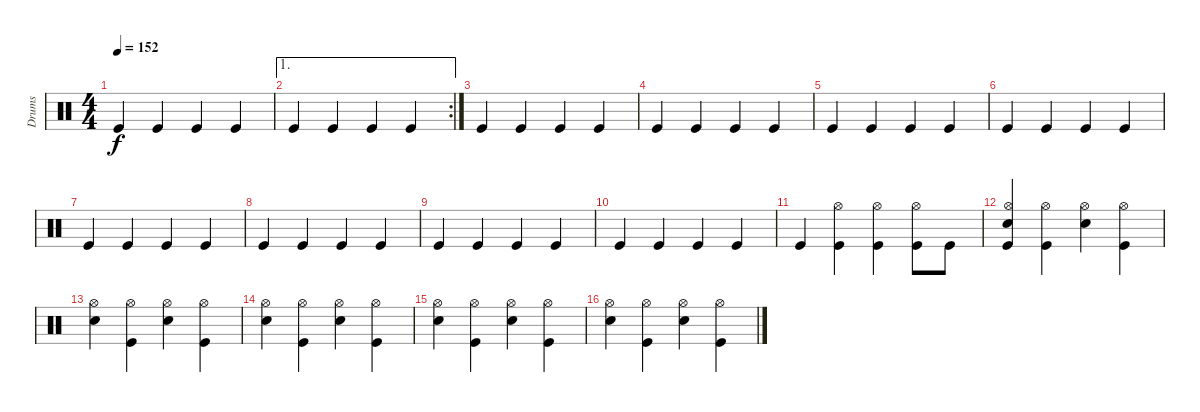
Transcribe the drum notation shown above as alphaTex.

\track ("Drums" "Drums") {instrument percussion}
\staff {score}
\articulation defaults
\ts (4 4)
\tempo 152
\clef neutral
\ks c "Kick (hit)".4{dy f} "Kick (hit)".4 "Kick (hit)".4 "Kick (hit)".4
|
\ae 1
\rc 2 "Kick (hit)".4 "Kick (hit)".4 "Kick (hit)".4 "Kick (hit)".4
|
"Kick (hit)".4 "Kick (hit)".4 "Kick (hit)".4 "Kick (hit)".4 |
"Kick (hit)".4 "Kick (hit)".4 "Kick (hit)".4 "Kick (hit)".4 |
"Kick (hit)".4 "Kick (hit)".4 "Kick (hit)".4 "Kick (hit)".4 |
"Kick (hit)".4 "Kick (hit)".4 "Kick (hit)".4 "Kick (hit)".4 |
"Kick (hit)".4 "Kick (hit)".4 "Kick (hit)".4 "Kick (hit)".4 |
"Kick (hit)".4 "Kick (hit)".4 "Kick (hit)".4 "Kick (hit)".4 |
"Kick (hit)".4 "Kick (hit)".4 "Kick (hit)".4 "Kick (hit)".4 |
"Kick (hit)".4 "Kick (hit)".4 "Kick (hit)".4 "Kick (hit)".4 |
"Kick (hit)".4 ("Kick (hit)" "Hi-Hat (open)").4 ("Kick (hit)" "Hi-Hat (open)").4 ("Kick (hit)" "Hi-Hat (open)").8 "Kick (hit)".8 |
("Kick (hit)" "Electric Snare (hit)" "Hi-Hat (open)").4 ("Kick (hit)" "Hi-Hat (open)").4 ("Electric Snare (hit)" "Hi-Hat (open)").4 ("Kick (hit)" "Hi-Hat (open)").4 |
("Electric Snare (hit)" "Hi-Hat (open)").4 ("Kick (hit)" "Hi-Hat (open)").4 ("Electric Snare (hit)" "Hi-Hat (open)").4 ("Kick (hit)" "Hi-Hat (open)").4 |
("Electric Snare (hit)" "Hi-Hat (open)").4 ("Kick (hit)" "Hi-Hat (open)").4 ("Electric Snare (hit)" "Hi-Hat (open)").4 ("Kick (hit)" "Hi-Hat (open)").4 |
("Electric Snare (hit)" "Hi-Hat (open)").4 ("Kick (hit)" "Hi-Hat (open)").4 ("Electric Snare (hit)" "Hi-Hat (open)").4 ("Kick (hit)" "Hi-Hat (open)").4 |
("Electric Snare (hit)" "Hi-Hat (open)").4 ("Kick (hit)" "Hi-Hat (open)").4 ("Electric Snare (hit)" "Hi-Hat (open)").4 ("Kick (hit)" "Hi-Hat (open)").4
